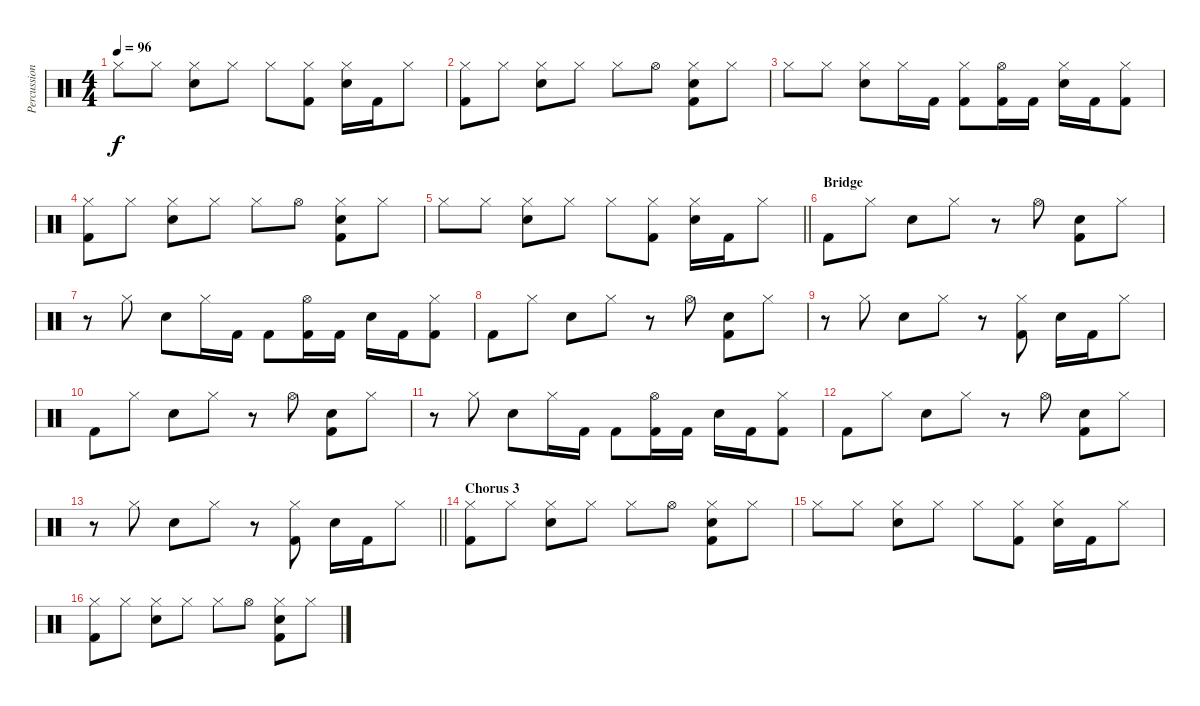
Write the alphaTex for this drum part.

\track ("Percussion" "Percussion") {instrument percussion}
\staff {score}
\articulation defaults
\ts (4 4)
\tempo 96
\clef neutral
\ks c "Hi-Hat (closed)".8{dy f} "Hi-Hat (closed)".8
("Hi-Hat (closed)" "Snare (hit) 2").8 "Hi-Hat (closed)".8 "Hi-Hat (closed)".8 ("Hi-Hat (closed)" "Kick (hit) 2").8 ("Hi-Hat (closed)" "Snare (hit) 2").16 "Kick (hit) 2".16 "Hi-Hat (closed)".8 |
("Hi-Hat (closed)" "Kick (hit) 2").8 "Hi-Hat (closed)".8 ("Hi-Hat (closed)" "Snare (hit) 2").8 "Hi-Hat (closed)".8 "Hi-Hat (closed)".8 "Hi-Hat (open)".8 ("Hi-Hat (closed)" "Snare (hit) 2" "Kick (hit) 2").8 "Hi-Hat (closed)".8 |
"Hi-Hat (closed)".8 "Hi-Hat (closed)".8 ("Hi-Hat (closed)" "Snare (hit) 2").8 "Hi-Hat (closed)".16 "Kick (hit) 2".16 ("Hi-Hat (closed)" "Kick (hit) 2").8 ("Hi-Hat (open)" "Kick (hit) 2").16 "Kick (hit) 2".16 ("Hi-Hat (closed)" "Snare (hit) 2").16 "Kick (hit) 2".16 ("Hi-Hat (closed)" "Kick (hit) 2").8 |
("Hi-Hat (closed)" "Kick (hit) 2").8 "Hi-Hat (closed)".8 ("Hi-Hat (closed)" "Snare (hit) 2").8 "Hi-Hat (closed)".8 "Hi-Hat (closed)".8 "Hi-Hat (open)".8 ("Hi-Hat (closed)" "Snare (hit) 2" "Kick (hit) 2").8 "Hi-Hat (closed)".8 |
\barLineRight lightlight "Hi-Hat (closed)".8 "Hi-Hat (closed)".8
("Hi-Hat (closed)" "Snare (hit) 2").8 "Hi-Hat (closed)".8 "Hi-Hat (closed)".8 ("Hi-Hat (closed)" "Kick (hit) 2").8 ("Hi-Hat (closed)" "Snare (hit) 2").16 "Kick (hit) 2".16 "Hi-Hat (closed)".8 |
\section ("" "Bridge")
"Kick (hit) 2".8 "Hi-Hat (closed)".8 "Snare (hit) 2".8 "Hi-Hat (closed)".8 r.8 "Hi-Hat (open)".8 ("Snare (hit) 2" "Kick (hit) 2").8 "Hi-Hat (closed)".8 |
r.8 "Hi-Hat (closed)".8 "Snare (hit) 2".8 "Hi-Hat (closed)".16 "Kick (hit) 2".16 "Kick (hit) 2".8 ("Hi-Hat (open)" "Kick (hit) 2").16 "Kick (hit) 2".16 "Snare (hit) 2".16 "Kick (hit) 2".16 ("Hi-Hat (closed)" "Kick (hit) 2").8 |
"Kick (hit) 2".8 "Hi-Hat (closed)".8 "Snare (hit) 2".8 "Hi-Hat (closed)".8 r.8 "Hi-Hat (open)".8 ("Snare (hit) 2" "Kick (hit) 2").8 "Hi-Hat (closed)".8 |
r.8 "Hi-Hat (closed)".8 "Snare (hit) 2".8 "Hi-Hat (closed)".8 r.8 ("Hi-Hat (closed)" "Kick (hit) 2").8 "Snare (hit) 2".16 "Kick (hit) 2".16 "Hi-Hat (closed)".8 |
"Kick (hit) 2".8 "Hi-Hat (closed)".8 "Snare (hit) 2".8 "Hi-Hat (closed)".8 r.8 "Hi-Hat (open)".8 ("Snare (hit) 2" "Kick (hit) 2").8 "Hi-Hat (closed)".8 |
r.8 "Hi-Hat (closed)".8 "Snare (hit) 2".8 "Hi-Hat (closed)".16 "Kick (hit) 2".16 "Kick (hit) 2".8 ("Hi-Hat (open)" "Kick (hit) 2").16 "Kick (hit) 2".16 "Snare (hit) 2".16 "Kick (hit) 2".16 ("Hi-Hat (closed)" "Kick (hit) 2").8 |
"Kick (hit) 2".8 "Hi-Hat (closed)".8 "Snare (hit) 2".8 "Hi-Hat (closed)".8 r.8 "Hi-Hat (open)".8 ("Snare (hit) 2" "Kick (hit) 2").8 "Hi-Hat (closed)".8 |
\barLineRight lightlight
r.8 "Hi-Hat (closed)".8 "Snare (hit) 2".8 "Hi-Hat (closed)".8 r.8 ("Hi-Hat (closed)" "Kick (hit) 2").8 "Snare (hit) 2".16 "Kick (hit) 2".16 "Hi-Hat (closed)".8 |
\section ("" "Chorus 3")
("Hi-Hat (closed)" "Kick (hit) 2").8 "Hi-Hat (closed)".8 ("Hi-Hat (closed)" "Snare (hit) 2").8 "Hi-Hat (closed)".8 "Hi-Hat (closed)".8 "Hi-Hat (open)".8 ("Hi-Hat (closed)" "Snare (hit) 2" "Kick (hit) 2").8 "Hi-Hat (closed)".8 |
"Hi-Hat (closed)".8 "Hi-Hat (closed)".8 ("Hi-Hat (closed)" "Snare (hit) 2").8 "Hi-Hat (closed)".8 "Hi-Hat (closed)".8 ("Hi-Hat (closed)" "Kick (hit) 2").8 ("Hi-Hat (closed)" "Snare (hit) 2").16 "Kick (hit) 2".16 "Hi-Hat (closed)".8 |
("Hi-Hat (closed)" "Kick (hit) 2").8 "Hi-Hat (closed)".8 ("Hi-Hat (closed)" "Snare (hit) 2").8 "Hi-Hat (closed)".8 "Hi-Hat (closed)".8 "Hi-Hat (open)".8 ("Hi-Hat (closed)" "Snare (hit) 2" "Kick (hit) 2").8 "Hi-Hat (closed)".8
